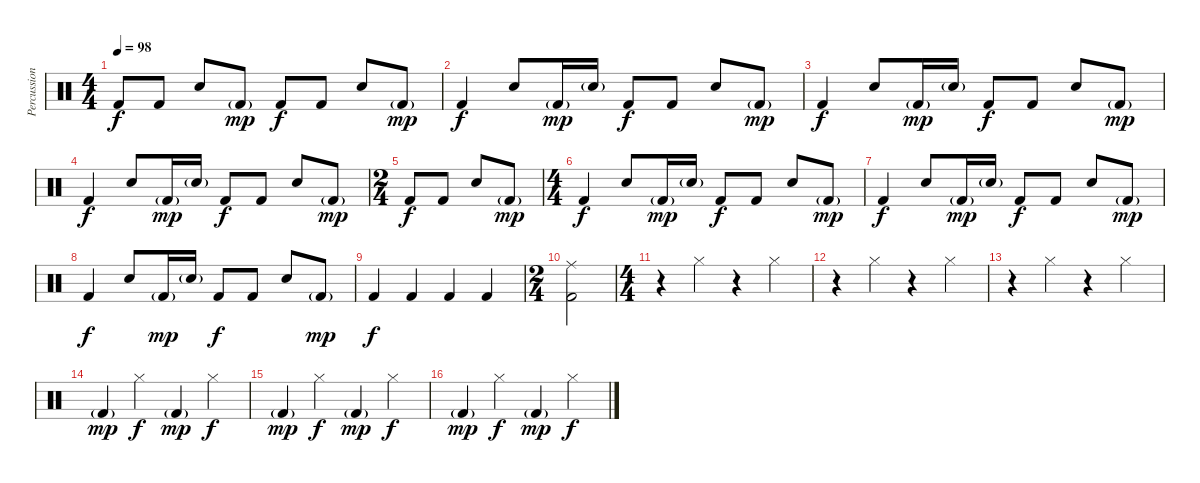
\track ("Percussion" "Percussion") {instrument percussion}
\staff {score}
\articulation defaults
\ts (4 4)
\tempo 98
\clef neutral
\ks c "Kick (hit) 2".8{dy f} "Kick (hit) 2".8 "Snare (hit) 2".8 "Kick (hit) 2"{g}.8{dy mp} "Kick (hit) 2".8{dy f} "Kick (hit) 2".8 "Snare (hit) 2".8 "Kick (hit) 2"{g}.8{dy mp}
|
"Kick (hit) 2".4{dy f} "Snare (hit) 2".8 "Kick (hit) 2"{g}.16{dy mp} "Snare (hit) 2"{g}.16 "Kick (hit) 2".8{dy f} "Kick (hit) 2".8 "Snare (hit) 2".8 "Kick (hit) 2"{g}.8{dy mp} |
"Kick (hit) 2".4{dy f} "Snare (hit) 2".8 "Kick (hit) 2"{g}.16{dy mp} "Snare (hit) 2"{g}.16 "Kick (hit) 2".8{dy f} "Kick (hit) 2".8 "Snare (hit) 2".8 "Kick (hit) 2"{g}.8{dy mp} |
"Kick (hit) 2".4{dy f} "Snare (hit) 2".8 "Kick (hit) 2"{g}.16{dy mp} "Snare (hit) 2"{g}.16 "Kick (hit) 2".8{dy f} "Kick (hit) 2".8 "Snare (hit) 2".8 "Kick (hit) 2"{g}.8{dy mp} |
\ts (2 4)
"Kick (hit) 2".8{dy f} "Kick (hit) 2".8 "Snare (hit) 2".8 "Kick (hit) 2"{g}.8{dy mp} |
\ts (4 4)
"Kick (hit) 2".4{dy f} "Snare (hit) 2".8 "Kick (hit) 2"{g}.16{dy mp} "Snare (hit) 2"{g}.16 "Kick (hit) 2".8{dy f} "Kick (hit) 2".8 "Snare (hit) 2".8 "Kick (hit) 2"{g}.8{dy mp} |
"Kick (hit) 2".4{dy f} "Snare (hit) 2".8 "Kick (hit) 2"{g}.16{dy mp} "Snare (hit) 2"{g}.16 "Kick (hit) 2".8{dy f} "Kick (hit) 2".8 "Snare (hit) 2".8 "Kick (hit) 2"{g}.8{dy mp} |
"Kick (hit) 2".4{dy f} "Snare (hit) 2".8 "Kick (hit) 2"{g}.16{dy mp} "Snare (hit) 2"{g}.16 "Kick (hit) 2".8{dy f} "Kick (hit) 2".8 "Snare (hit) 2".8 "Kick (hit) 2"{g}.8{dy mp} |
"Kick (hit) 2".4{dy f} "Kick (hit) 2".4 "Kick (hit) 2".4 "Kick (hit) 2".4 |
\ts (2 4)
("Ride (middle)" "Kick (hit) 2").2 |
\ts (4 4)
r.4{volume 12} "Hi-Hat (closed)".4 r.4 "Hi-Hat (closed)".4 |
r.4 "Hi-Hat (closed)".4 r.4 "Hi-Hat (closed)".4 |
r.4 "Hi-Hat (closed)".4 r.4 "Hi-Hat (closed)".4 |
"Kick (hit) 2"{g}.4{dy mp} "Hi-Hat (closed)".4{dy f} "Kick (hit) 2"{g}.4{dy mp} "Hi-Hat (closed)".4{dy f} |
"Kick (hit) 2"{g}.4{dy mp} "Hi-Hat (closed)".4{dy f} "Kick (hit) 2"{g}.4{dy mp} "Hi-Hat (closed)".4{dy f} |
"Kick (hit) 2"{g}.4{dy mp} "Hi-Hat (closed)".4{dy f} "Kick (hit) 2"{g}.4{dy mp} "Hi-Hat (closed)".4{dy f}
